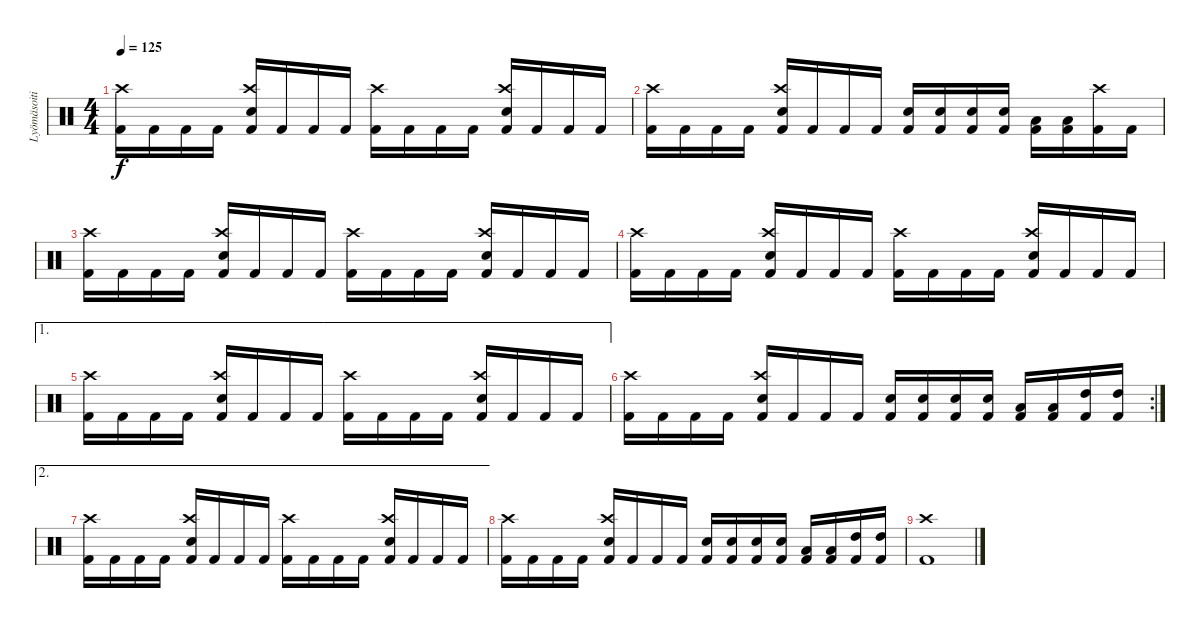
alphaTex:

\track ("Lyömäsoitin" "Lyömäsoiti") {instrument percussion}
\staff {score}
\articulation defaults
\ts (4 4)
\tempo 125
\clef neutral
\ks c
("Kick (hit) 2" "Crash high (hit)").16{dy f} "Kick (hit) 2".16 "Kick (hit) 2".16 "Kick (hit) 2".16 ("Kick (hit) 2" "Crash high (hit)" "Electric Snare (hit)").16 "Kick (hit) 2".16 "Kick (hit) 2".16 "Kick (hit) 2".16 ("Kick (hit) 2" "Crash high (hit)").16 "Kick (hit) 2".16 "Kick (hit) 2".16 "Kick (hit) 2".16 ("Kick (hit) 2" "Crash high (hit)" "Electric Snare (hit)").16 "Kick (hit) 2".16 "Kick (hit) 2".16 "Kick (hit) 2".16 |
("Kick (hit) 2" "Crash high (hit)").16 "Kick (hit) 2".16 "Kick (hit) 2".16 "Kick (hit) 2".16 ("Kick (hit) 2" "Crash high (hit)" "Electric Snare (hit)").16 "Kick (hit) 2".16 "Kick (hit) 2".16 "Kick (hit) 2".16 ("Kick (hit) 2" "Electric Snare (hit)").16 ("Kick (hit) 2" "Electric Snare (hit)").16 ("Kick (hit) 2" "Electric Snare (hit)").16 ("Kick (hit) 2" "Electric Snare (hit)").16 ("Kick (hit) 2" "Low Tom (hit)").16 ("Kick (hit) 2" "Low Tom (hit)").16 ("Kick (hit) 2" "Crash high (hit)").16 "Kick (hit) 2".16 |
("Kick (hit) 2" "Crash high (hit)").16 "Kick (hit) 2".16 "Kick (hit) 2".16 "Kick (hit) 2".16 ("Kick (hit) 2" "Crash high (hit)" "Electric Snare (hit)").16 "Kick (hit) 2".16 "Kick (hit) 2".16 "Kick (hit) 2".16 ("Kick (hit) 2" "Crash high (hit)").16 "Kick (hit) 2".16 "Kick (hit) 2".16 "Kick (hit) 2".16 ("Kick (hit) 2" "Crash high (hit)" "Electric Snare (hit)").16 "Kick (hit) 2".16 "Kick (hit) 2".16 "Kick (hit) 2".16 |
("Kick (hit) 2" "Crash high (hit)").16 "Kick (hit) 2".16 "Kick (hit) 2".16 "Kick (hit) 2".16 ("Kick (hit) 2" "Crash high (hit)" "Electric Snare (hit)").16 "Kick (hit) 2".16 "Kick (hit) 2".16 "Kick (hit) 2".16 ("Kick (hit) 2" "Crash high (hit)").16 "Kick (hit) 2".16 "Kick (hit) 2".16 "Kick (hit) 2".16 ("Kick (hit) 2" "Crash high (hit)" "Electric Snare (hit)").16 "Kick (hit) 2".16 "Kick (hit) 2".16 "Kick (hit) 2".16 |
\ae 1
("Kick (hit) 2" "Crash high (hit)").16 "Kick (hit) 2".16 "Kick (hit) 2".16 "Kick (hit) 2".16 ("Kick (hit) 2" "Crash high (hit)" "Electric Snare (hit)").16 "Kick (hit) 2".16 "Kick (hit) 2".16 "Kick (hit) 2".16 ("Kick (hit) 2" "Crash high (hit)").16 "Kick (hit) 2".16 "Kick (hit) 2".16 "Kick (hit) 2".16 ("Kick (hit) 2" "Crash high (hit)" "Electric Snare (hit)").16 "Kick (hit) 2".16 "Kick (hit) 2".16 "Kick (hit) 2".16 |
\rc 2
("Kick (hit) 2" "Crash high (hit)").16 "Kick (hit) 2".16 "Kick (hit) 2".16 "Kick (hit) 2".16 ("Kick (hit) 2" "Crash high (hit)" "Electric Snare (hit)").16 "Kick (hit) 2".16 "Kick (hit) 2".16 "Kick (hit) 2".16 ("Kick (hit) 2" "Electric Snare (hit)").16 ("Kick (hit) 2" "Electric Snare (hit)").16 ("Kick (hit) 2" "Electric Snare (hit)").16 ("Kick (hit) 2" "Electric Snare (hit)").16 ("Kick (hit) 2" "Low Tom (hit)").16 ("Kick (hit) 2" "Low Tom (hit)").16 ("Kick (hit) 2" "High Tom (hit)").16 ("Kick (hit) 2" "High Tom (hit)").16 |
\ae 2
("Kick (hit) 2" "Crash high (hit)").16 "Kick (hit) 2".16 "Kick (hit) 2".16 "Kick (hit) 2".16 ("Kick (hit) 2" "Crash high (hit)" "Electric Snare (hit)").16 "Kick (hit) 2".16 "Kick (hit) 2".16 "Kick (hit) 2".16 ("Kick (hit) 2" "Crash high (hit)").16 "Kick (hit) 2".16 "Kick (hit) 2".16 "Kick (hit) 2".16 ("Kick (hit) 2" "Crash high (hit)" "Electric Snare (hit)").16 "Kick (hit) 2".16 "Kick (hit) 2".16 "Kick (hit) 2".16 |
("Kick (hit) 2" "Crash high (hit)").16 "Kick (hit) 2".16 "Kick (hit) 2".16 "Kick (hit) 2".16 ("Kick (hit) 2" "Crash high (hit)" "Electric Snare (hit)").16 "Kick (hit) 2".16 "Kick (hit) 2".16 "Kick (hit) 2".16 ("Kick (hit) 2" "Electric Snare (hit)").16 ("Kick (hit) 2" "Electric Snare (hit)").16 ("Kick (hit) 2" "Electric Snare (hit)").16 ("Kick (hit) 2" "Electric Snare (hit)").16 ("Kick (hit) 2" "Low Tom (hit)").16 ("Kick (hit) 2" "Low Tom (hit)").16 ("Kick (hit) 2" "High Tom (hit)").16 ("Kick (hit) 2" "High Tom (hit)").16 |
("Kick (hit) 2" "Crash high (hit)").1
